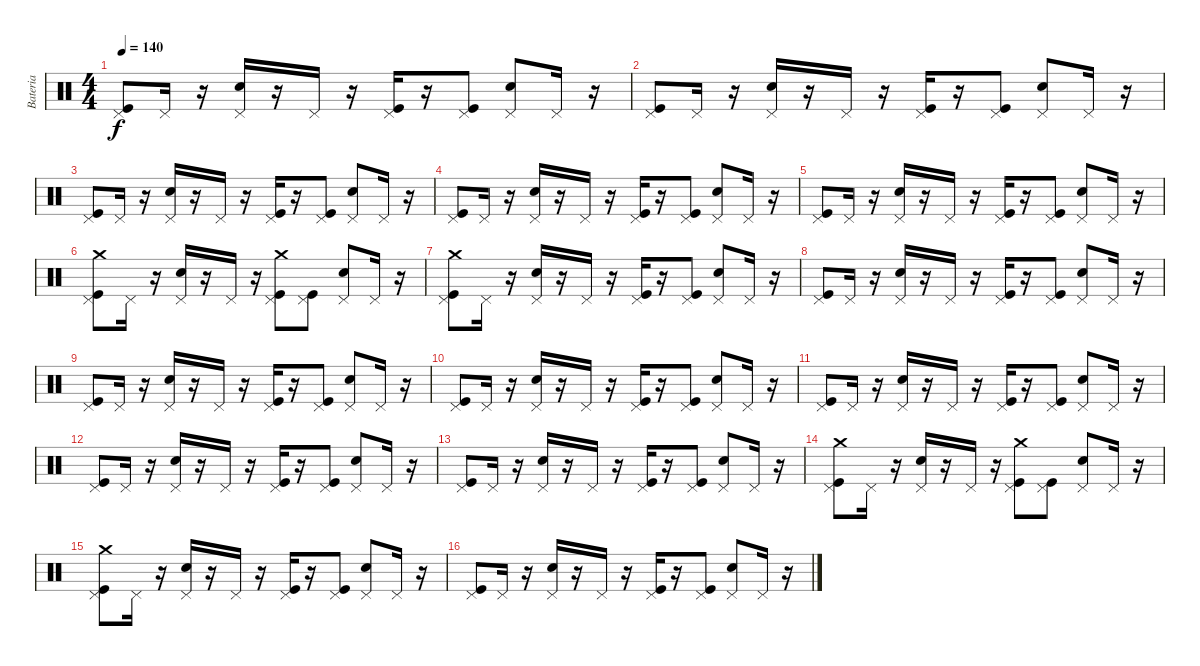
\track ("Bateria" "Bateria") {instrument percussion}
\staff {score}
\articulation defaults
\ts (4 4)
\tempo 140
\clef neutral
\ks c
("Pedal Hi-Hat (hit)" "Kick (hit)").8{dy f} "Pedal Hi-Hat (hit)".16 r.16 ("Pedal Hi-Hat (hit)" "Snare (hit) 2").16 r.16 "Pedal Hi-Hat (hit)".16 r.16 ("Pedal Hi-Hat (hit)" "Kick (hit)").16 r.16 ("Pedal Hi-Hat (hit)" "Kick (hit)").8 ("Pedal Hi-Hat (hit)" "Snare (hit) 2").8 "Pedal Hi-Hat (hit)".16 r.16 |
("Pedal Hi-Hat (hit)" "Kick (hit)").8 "Pedal Hi-Hat (hit)".16 r.16 ("Pedal Hi-Hat (hit)" "Snare (hit) 2").16 r.16 "Pedal Hi-Hat (hit)".16 r.16 ("Pedal Hi-Hat (hit)" "Kick (hit)").16 r.16 ("Pedal Hi-Hat (hit)" "Kick (hit)").8 ("Pedal Hi-Hat (hit)" "Snare (hit) 2").8 "Pedal Hi-Hat (hit)".16 r.16 |
("Pedal Hi-Hat (hit)" "Kick (hit)").8 "Pedal Hi-Hat (hit)".16 r.16 ("Pedal Hi-Hat (hit)" "Snare (hit) 2").16 r.16 "Pedal Hi-Hat (hit)".16 r.16 ("Pedal Hi-Hat (hit)" "Kick (hit)").16 r.16 ("Pedal Hi-Hat (hit)" "Kick (hit)").8 ("Pedal Hi-Hat (hit)" "Snare (hit) 2").8 "Pedal Hi-Hat (hit)".16 r.16 |
("Pedal Hi-Hat (hit)" "Kick (hit)").8 "Pedal Hi-Hat (hit)".16 r.16 ("Pedal Hi-Hat (hit)" "Snare (hit) 2").16 r.16 "Pedal Hi-Hat (hit)".16 r.16 ("Pedal Hi-Hat (hit)" "Kick (hit)").16 r.16 ("Pedal Hi-Hat (hit)" "Kick (hit)").8 ("Pedal Hi-Hat (hit)" "Snare (hit) 2").8 "Pedal Hi-Hat (hit)".16 r.16 |
("Pedal Hi-Hat (hit)" "Kick (hit)").8 "Pedal Hi-Hat (hit)".16 r.16 ("Pedal Hi-Hat (hit)" "Snare (hit) 2").16 r.16 "Pedal Hi-Hat (hit)".16 r.16 ("Pedal Hi-Hat (hit)" "Kick (hit)").16 r.16 ("Pedal Hi-Hat (hit)" "Kick (hit)").8 ("Pedal Hi-Hat (hit)" "Snare (hit) 2").8 "Pedal Hi-Hat (hit)".16 r.16 |
("Crash medium (hit)" "Pedal Hi-Hat (hit)" "Kick (hit)").8 "Pedal Hi-Hat (hit)".16 r.16 ("Pedal Hi-Hat (hit)" "Snare (hit) 2").16 r.16 "Pedal Hi-Hat (hit)".16 r.16 ("Crash medium (hit)" "Pedal Hi-Hat (hit)" "Kick (hit)").8 ("Pedal Hi-Hat (hit)" "Kick (hit)").8 ("Pedal Hi-Hat (hit)" "Snare (hit) 2").8 "Pedal Hi-Hat (hit)".16 r.16 |
("Crash medium (hit)" "Pedal Hi-Hat (hit)" "Kick (hit)").8 "Pedal Hi-Hat (hit)".16 r.16 ("Pedal Hi-Hat (hit)" "Snare (hit) 2").16 r.16 "Pedal Hi-Hat (hit)".16 r.16 ("Pedal Hi-Hat (hit)" "Kick (hit)").16 r.16 ("Pedal Hi-Hat (hit)" "Kick (hit)").8 ("Pedal Hi-Hat (hit)" "Snare (hit) 2").8 "Pedal Hi-Hat (hit)".16 r.16 |
("Pedal Hi-Hat (hit)" "Kick (hit)").8 "Pedal Hi-Hat (hit)".16 r.16 ("Pedal Hi-Hat (hit)" "Snare (hit) 2").16 r.16 "Pedal Hi-Hat (hit)".16 r.16 ("Pedal Hi-Hat (hit)" "Kick (hit)").16 r.16 ("Pedal Hi-Hat (hit)" "Kick (hit)").8 ("Pedal Hi-Hat (hit)" "Snare (hit) 2").8 "Pedal Hi-Hat (hit)".16 r.16 |
("Pedal Hi-Hat (hit)" "Kick (hit)").8 "Pedal Hi-Hat (hit)".16 r.16 ("Pedal Hi-Hat (hit)" "Snare (hit) 2").16 r.16 "Pedal Hi-Hat (hit)".16 r.16 ("Pedal Hi-Hat (hit)" "Kick (hit)").16 r.16 ("Pedal Hi-Hat (hit)" "Kick (hit)").8 ("Pedal Hi-Hat (hit)" "Snare (hit) 2").8 "Pedal Hi-Hat (hit)".16 r.16 |
("Pedal Hi-Hat (hit)" "Kick (hit)").8 "Pedal Hi-Hat (hit)".16 r.16 ("Pedal Hi-Hat (hit)" "Snare (hit) 2").16 r.16 "Pedal Hi-Hat (hit)".16 r.16 ("Pedal Hi-Hat (hit)" "Kick (hit)").16 r.16 ("Pedal Hi-Hat (hit)" "Kick (hit)").8 ("Pedal Hi-Hat (hit)" "Snare (hit) 2").8 "Pedal Hi-Hat (hit)".16 r.16 |
("Pedal Hi-Hat (hit)" "Kick (hit)").8 "Pedal Hi-Hat (hit)".16 r.16 ("Pedal Hi-Hat (hit)" "Snare (hit) 2").16 r.16 "Pedal Hi-Hat (hit)".16 r.16 ("Pedal Hi-Hat (hit)" "Kick (hit)").16 r.16 ("Pedal Hi-Hat (hit)" "Kick (hit)").8 ("Pedal Hi-Hat (hit)" "Snare (hit) 2").8 "Pedal Hi-Hat (hit)".16 r.16 |
("Pedal Hi-Hat (hit)" "Kick (hit)").8 "Pedal Hi-Hat (hit)".16 r.16 ("Pedal Hi-Hat (hit)" "Snare (hit) 2").16 r.16 "Pedal Hi-Hat (hit)".16 r.16 ("Pedal Hi-Hat (hit)" "Kick (hit)").16 r.16 ("Pedal Hi-Hat (hit)" "Kick (hit)").8 ("Pedal Hi-Hat (hit)" "Snare (hit) 2").8 "Pedal Hi-Hat (hit)".16 r.16 |
("Pedal Hi-Hat (hit)" "Kick (hit)").8 "Pedal Hi-Hat (hit)".16 r.16 ("Pedal Hi-Hat (hit)" "Snare (hit) 2").16 r.16 "Pedal Hi-Hat (hit)".16 r.16 ("Pedal Hi-Hat (hit)" "Kick (hit)").16 r.16 ("Pedal Hi-Hat (hit)" "Kick (hit)").8 ("Pedal Hi-Hat (hit)" "Snare (hit) 2").8 "Pedal Hi-Hat (hit)".16 r.16 |
("Crash medium (hit)" "Pedal Hi-Hat (hit)" "Kick (hit)").8 "Pedal Hi-Hat (hit)".16 r.16 ("Pedal Hi-Hat (hit)" "Snare (hit) 2").16 r.16 "Pedal Hi-Hat (hit)".16 r.16 ("Crash medium (hit)" "Pedal Hi-Hat (hit)" "Kick (hit)").8 ("Pedal Hi-Hat (hit)" "Kick (hit)").8 ("Pedal Hi-Hat (hit)" "Snare (hit) 2").8 "Pedal Hi-Hat (hit)".16 r.16 |
("Crash medium (hit)" "Pedal Hi-Hat (hit)" "Kick (hit)").8 "Pedal Hi-Hat (hit)".16 r.16 ("Pedal Hi-Hat (hit)" "Snare (hit) 2").16 r.16 "Pedal Hi-Hat (hit)".16 r.16 ("Pedal Hi-Hat (hit)" "Kick (hit)").16 r.16 ("Pedal Hi-Hat (hit)" "Kick (hit)").8 ("Pedal Hi-Hat (hit)" "Snare (hit) 2").8 "Pedal Hi-Hat (hit)".16 r.16 |
("Pedal Hi-Hat (hit)" "Kick (hit)").8 "Pedal Hi-Hat (hit)".16 r.16 ("Pedal Hi-Hat (hit)" "Snare (hit) 2").16 r.16 "Pedal Hi-Hat (hit)".16 r.16 ("Pedal Hi-Hat (hit)" "Kick (hit)").16 r.16 ("Pedal Hi-Hat (hit)" "Kick (hit)").8 ("Pedal Hi-Hat (hit)" "Snare (hit) 2").8 "Pedal Hi-Hat (hit)".16 r.16
